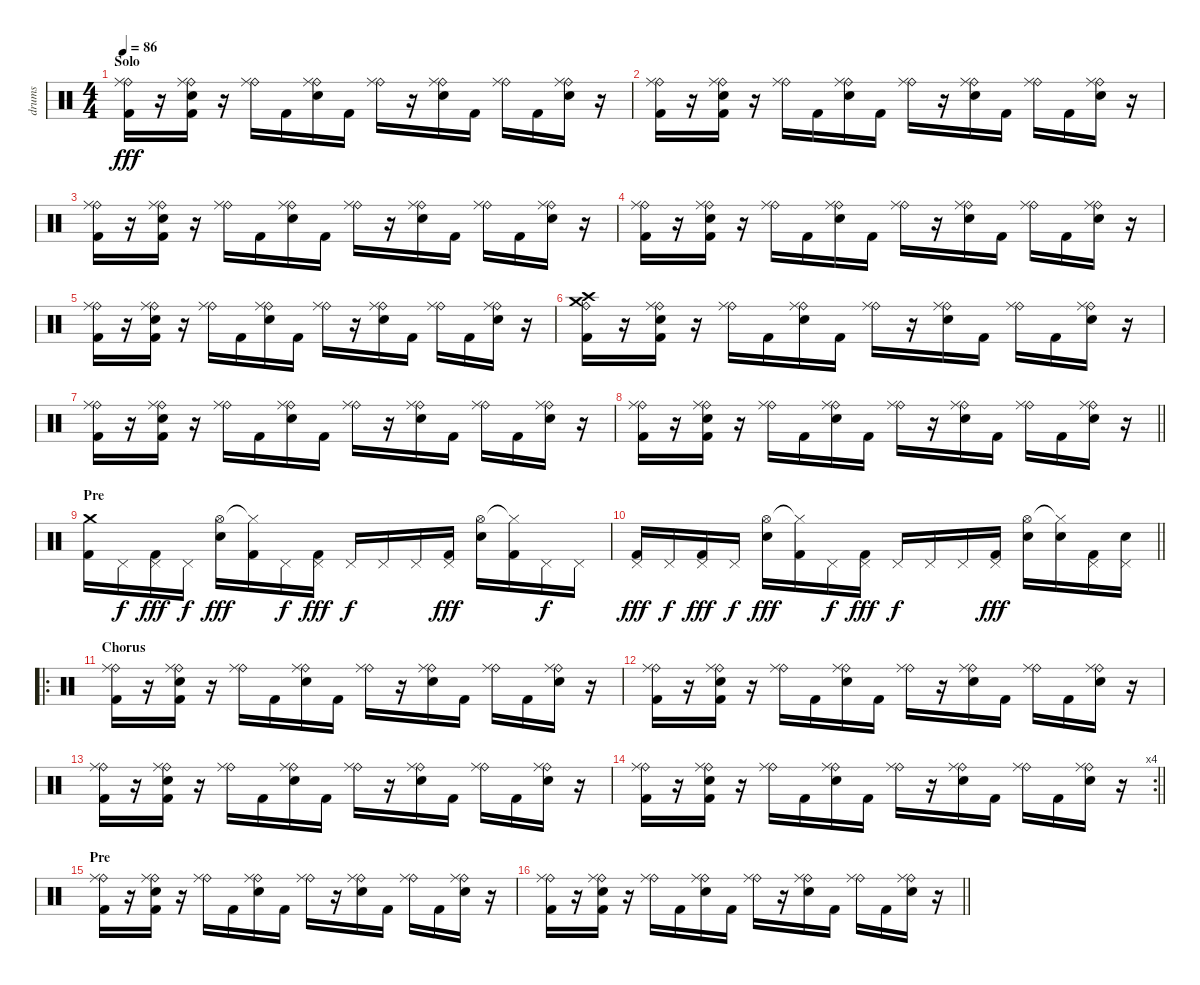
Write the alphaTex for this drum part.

\track ("drums" "drums") {instrument percussion}
\staff {score}
\articulation defaults
\ts (4 4)
\section ("" "Solo")
\tempo 86
\clef neutral
\ks c
("Ride (bell)" "Ride (middle)" "Kick (hit) 2").16{dy fff} r.16 ("Ride (bell)" "Ride (middle)" "Electric Snare (hit)" "Kick (hit) 2").16 r.16 ("Ride (bell)" "Ride (middle)").16 "Kick (hit) 2".16 ("Ride (bell)" "Ride (middle)" "Electric Snare (hit)").16 "Kick (hit) 2".16 ("Ride (bell)" "Ride (middle)").16 r.16 ("Ride (bell)" "Ride (middle)" "Electric Snare (hit)").16 "Kick (hit) 2".16 ("Ride (bell)" "Ride (middle)").16 "Kick (hit) 2".16 ("Ride (bell)" "Ride (middle)" "Electric Snare (hit)").16 r.16 |
("Ride (bell)" "Ride (middle)" "Kick (hit) 2").16 r.16 ("Ride (bell)" "Ride (middle)" "Electric Snare (hit)" "Kick (hit) 2").16 r.16 ("Ride (bell)" "Ride (middle)").16 "Kick (hit) 2".16 ("Ride (bell)" "Ride (middle)" "Electric Snare (hit)").16 "Kick (hit) 2".16 ("Ride (bell)" "Ride (middle)").16 r.16 ("Ride (bell)" "Ride (middle)" "Electric Snare (hit)").16 "Kick (hit) 2".16 ("Ride (bell)" "Ride (middle)").16 "Kick (hit) 2".16 ("Ride (bell)" "Ride (middle)" "Electric Snare (hit)").16 r.16 |
("Ride (bell)" "Ride (middle)" "Kick (hit) 2").16 r.16 ("Ride (bell)" "Ride (middle)" "Electric Snare (hit)" "Kick (hit) 2").16 r.16 ("Ride (bell)" "Ride (middle)").16 "Kick (hit) 2".16 ("Ride (bell)" "Ride (middle)" "Electric Snare (hit)").16 "Kick (hit) 2".16 ("Ride (bell)" "Ride (middle)").16 r.16 ("Ride (bell)" "Ride (middle)" "Electric Snare (hit)").16 "Kick (hit) 2".16 ("Ride (bell)" "Ride (middle)").16 "Kick (hit) 2".16 ("Ride (bell)" "Ride (middle)" "Electric Snare (hit)").16 r.16 |
("Ride (bell)" "Ride (middle)" "Kick (hit) 2").16 r.16 ("Ride (bell)" "Ride (middle)" "Electric Snare (hit)" "Kick (hit) 2").16 r.16 ("Ride (bell)" "Ride (middle)").16 "Kick (hit) 2".16 ("Ride (bell)" "Ride (middle)" "Electric Snare (hit)").16 "Kick (hit) 2".16 ("Ride (bell)" "Ride (middle)").16 r.16 ("Ride (bell)" "Ride (middle)" "Electric Snare (hit)").16 "Kick (hit) 2".16 ("Ride (bell)" "Ride (middle)").16 "Kick (hit) 2".16 ("Ride (bell)" "Ride (middle)" "Electric Snare (hit)").16 r.16 |
("Ride (bell)" "Ride (middle)" "Kick (hit) 2").16 r.16 ("Ride (bell)" "Ride (middle)" "Electric Snare (hit)" "Kick (hit) 2").16 r.16 ("Ride (bell)" "Ride (middle)").16 "Kick (hit) 2".16 ("Ride (bell)" "Ride (middle)" "Electric Snare (hit)").16 "Kick (hit) 2".16 ("Ride (bell)" "Ride (middle)").16 r.16 ("Ride (bell)" "Ride (middle)" "Electric Snare (hit)").16 "Kick (hit) 2".16 ("Ride (bell)" "Ride (middle)").16 "Kick (hit) 2".16 ("Ride (bell)" "Ride (middle)" "Electric Snare (hit)").16 r.16 |
("Ride (bell)" "Crash medium (hit)" "Crash high (hit)" "Kick (hit) 2").16 r.16 ("Ride (bell)" "Ride (middle)" "Electric Snare (hit)" "Kick (hit) 2").16 r.16 ("Ride (bell)" "Ride (middle)").16 "Kick (hit) 2".16 ("Ride (bell)" "Ride (middle)" "Electric Snare (hit)").16 "Kick (hit) 2".16 ("Ride (bell)" "Ride (middle)").16 r.16 ("Ride (bell)" "Ride (middle)" "Electric Snare (hit)").16 "Kick (hit) 2".16 ("Ride (bell)" "Ride (middle)").16 "Kick (hit) 2".16 ("Ride (bell)" "Ride (middle)" "Electric Snare (hit)").16 r.16 |
("Ride (bell)" "Ride (middle)" "Kick (hit) 2").16 r.16 ("Ride (bell)" "Ride (middle)" "Electric Snare (hit)" "Kick (hit) 2").16 r.16 ("Ride (bell)" "Ride (middle)").16 "Kick (hit) 2".16 ("Ride (bell)" "Ride (middle)" "Electric Snare (hit)").16 "Kick (hit) 2".16 ("Ride (bell)" "Ride (middle)").16 r.16 ("Ride (bell)" "Ride (middle)" "Electric Snare (hit)").16 "Kick (hit) 2".16 ("Ride (bell)" "Ride (middle)").16 "Kick (hit) 2".16 ("Ride (bell)" "Ride (middle)" "Electric Snare (hit)").16 r.16 |
\barLineRight lightlight
("Ride (bell)" "Ride (middle)" "Kick (hit) 2").16 r.16 ("Ride (bell)" "Ride (middle)" "Electric Snare (hit)" "Kick (hit) 2").16 r.16 ("Ride (bell)" "Ride (middle)").16 "Kick (hit) 2".16 ("Ride (bell)" "Ride (middle)" "Electric Snare (hit)").16 "Kick (hit) 2".16 ("Ride (bell)" "Ride (middle)").16 r.16 ("Ride (bell)" "Ride (middle)" "Electric Snare (hit)").16 "Kick (hit) 2".16 ("Ride (bell)" "Ride (middle)").16 "Kick (hit) 2".16 ("Ride (bell)" "Ride (middle)" "Electric Snare (hit)").16 r.16 |
\section ("" "Pre")
("Crash medium (hit)" "Kick (hit) 2").16 "Pedal Hi-Hat (hit)".16{dy f} ("Pedal Hi-Hat (hit)" "Kick (hit) 2").16{dy fff} "Pedal Hi-Hat (hit)".16{dy f} ("Hi-Hat (open)" "Electric Snare (hit)").16{dy fff} ("Hi-Hat (closed)"{t} "Kick (hit) 2").16 "Pedal Hi-Hat (hit)".16{dy f} ("Pedal Hi-Hat (hit)" "Kick (hit) 2").16{dy fff} "Pedal Hi-Hat (hit)".16{dy f} "Pedal Hi-Hat (hit)".16 "Pedal Hi-Hat (hit)".16 ("Pedal Hi-Hat (hit)" "Kick (hit) 2").16{dy fff} ("Hi-Hat (open)" "Electric Snare (hit)").16 ("Hi-Hat (closed)"{t} "Kick (hit) 2").16 "Pedal Hi-Hat (hit)".16{dy f} "Pedal Hi-Hat (hit)".16 |
\barLineRight lightlight
("Pedal Hi-Hat (hit)" "Kick (hit) 2").16{dy fff} "Pedal Hi-Hat (hit)".16{dy f} ("Pedal Hi-Hat (hit)" "Kick (hit) 2").16{dy fff} "Pedal Hi-Hat (hit)".16{dy f} ("Hi-Hat (open)" "Electric Snare (hit)").16{dy fff} ("Hi-Hat (closed)"{t} "Kick (hit) 2").16 "Pedal Hi-Hat (hit)".16{dy f} ("Pedal Hi-Hat (hit)" "Kick (hit) 2").16{dy fff} "Pedal Hi-Hat (hit)".16{dy f} "Pedal Hi-Hat (hit)".16 "Pedal Hi-Hat (hit)".16 ("Pedal Hi-Hat (hit)" "Kick (hit) 2").16{dy fff} ("Hi-Hat (open)" "Electric Snare (hit)").16 ("Hi-Hat (closed)"{t} "Electric Snare (hit)").16 ("Pedal Hi-Hat (hit)" "Kick (hit) 2").16 ("Pedal Hi-Hat (hit)" "Electric Snare (hit)").16 |
\ro
\section ("" "Chorus")
("Ride (bell)" "Ride (middle)" "Kick (hit) 2").16 r.16 ("Ride (bell)" "Ride (middle)" "Electric Snare (hit)" "Kick (hit) 2").16 r.16 ("Ride (bell)" "Ride (middle)").16 "Kick (hit) 2".16 ("Ride (bell)" "Ride (middle)" "Electric Snare (hit)").16 "Kick (hit) 2".16 ("Ride (bell)" "Ride (middle)").16 r.16 ("Ride (bell)" "Ride (middle)" "Electric Snare (hit)").16 "Kick (hit) 2".16 ("Ride (bell)" "Ride (middle)").16 "Kick (hit) 2".16 ("Ride (bell)" "Ride (middle)" "Electric Snare (hit)").16 r.16 |
("Ride (bell)" "Ride (middle)" "Kick (hit) 2").16 r.16 ("Ride (bell)" "Ride (middle)" "Electric Snare (hit)" "Kick (hit) 2").16 r.16 ("Ride (bell)" "Ride (middle)").16 "Kick (hit) 2".16 ("Ride (bell)" "Ride (middle)" "Electric Snare (hit)").16 "Kick (hit) 2".16 ("Ride (bell)" "Ride (middle)").16 r.16 ("Ride (bell)" "Ride (middle)" "Electric Snare (hit)").16 "Kick (hit) 2".16 ("Ride (bell)" "Ride (middle)").16 "Kick (hit) 2".16 ("Ride (bell)" "Ride (middle)" "Electric Snare (hit)").16 r.16 |
("Ride (bell)" "Ride (middle)" "Kick (hit) 2").16 r.16 ("Ride (bell)" "Ride (middle)" "Electric Snare (hit)" "Kick (hit) 2").16 r.16 ("Ride (bell)" "Ride (middle)").16 "Kick (hit) 2".16 ("Ride (bell)" "Ride (middle)" "Electric Snare (hit)").16 "Kick (hit) 2".16 ("Ride (bell)" "Ride (middle)").16 r.16 ("Ride (bell)" "Ride (middle)" "Electric Snare (hit)").16 "Kick (hit) 2".16 ("Ride (bell)" "Ride (middle)").16 "Kick (hit) 2".16 ("Ride (bell)" "Ride (middle)" "Electric Snare (hit)").16 r.16 |
\rc 4
\barLineRight lightlight
("Ride (bell)" "Ride (middle)" "Kick (hit) 2").16 r.16 ("Ride (bell)" "Ride (middle)" "Electric Snare (hit)" "Kick (hit) 2").16 r.16 ("Ride (bell)" "Ride (middle)").16 "Kick (hit) 2".16 ("Ride (bell)" "Ride (middle)" "Electric Snare (hit)").16 "Kick (hit) 2".16 ("Ride (bell)" "Ride (middle)").16 r.16 ("Ride (bell)" "Ride (middle)" "Electric Snare (hit)").16 "Kick (hit) 2".16 ("Ride (bell)" "Ride (middle)").16 "Kick (hit) 2".16 ("Ride (bell)" "Ride (middle)" "Electric Snare (hit)").16 r.16 |
\section ("" "Pre")
("Ride (bell)" "Ride (middle)" "Kick (hit) 2").16 r.16 ("Ride (bell)" "Ride (middle)" "Electric Snare (hit)" "Kick (hit) 2").16 r.16 ("Ride (bell)" "Ride (middle)").16 "Kick (hit) 2".16 ("Ride (bell)" "Ride (middle)" "Electric Snare (hit)").16 "Kick (hit) 2".16 ("Ride (bell)" "Ride (middle)").16 r.16 ("Ride (bell)" "Ride (middle)" "Electric Snare (hit)").16 "Kick (hit) 2".16 ("Ride (bell)" "Ride (middle)").16 "Kick (hit) 2".16 ("Ride (bell)" "Ride (middle)" "Electric Snare (hit)").16 r.16 |
\barLineRight lightlight
("Ride (bell)" "Ride (middle)" "Kick (hit) 2").16 r.16 ("Ride (bell)" "Ride (middle)" "Electric Snare (hit)" "Kick (hit) 2").16 r.16 ("Ride (bell)" "Ride (middle)").16 "Kick (hit) 2".16 ("Ride (bell)" "Ride (middle)" "Electric Snare (hit)").16 "Kick (hit) 2".16 ("Ride (bell)" "Ride (middle)").16 r.16 ("Ride (bell)" "Ride (middle)" "Electric Snare (hit)").16 "Kick (hit) 2".16 ("Ride (bell)" "Ride (middle)").16 "Kick (hit) 2".16 ("Ride (bell)" "Ride (middle)" "Electric Snare (hit)").16 r.16
